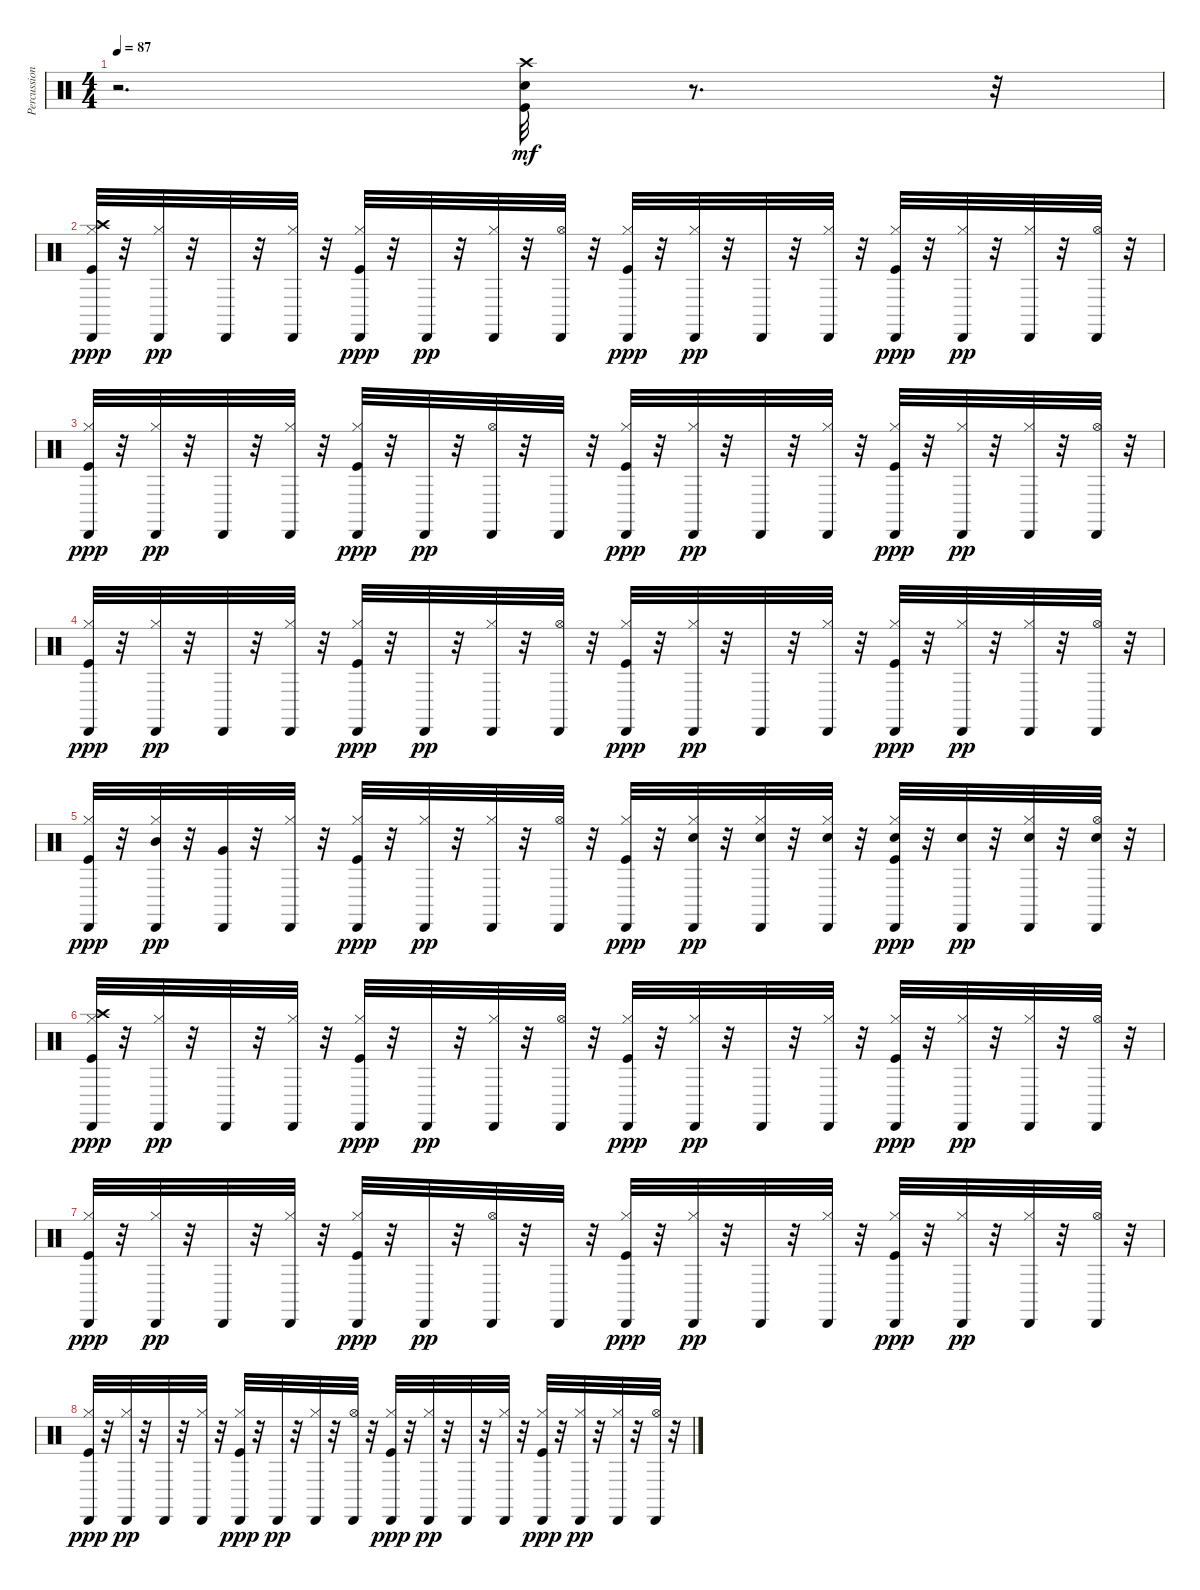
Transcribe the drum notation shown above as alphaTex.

\track ("Percussion" "Percussion") {instrument percussion}
\staff {score}
\articulation defaults
\ts (4 4)
\tempo 87
\clef neutral
\ks c
r.2{d dy pp} ("Kick (hit)" "Snare (hit) 2" "Crash high (hit)").32{dy mf} r.8{d} r.32 |
("Kick (hit)" "Hi-Hat (closed)" "Crash high (hit)" "Cabasa (hit)").32{dy ppp} r.32 ("Hi-Hat (closed)" "Cabasa (hit)").32{dy pp} r.32 "Cabasa (hit)".32 r.32 ("Hi-Hat (closed)" "Cabasa (hit)").32 r.32 ("Kick (hit)" "Hi-Hat (closed)" "Cabasa (hit)").32{dy ppp} r.32 "Cabasa (hit)".32{dy pp} r.32 ("Hi-Hat (closed)" "Cabasa (hit)").32 r.32 ("Hi-Hat (open)" "Cabasa (hit)").32 r.32 ("Kick (hit)" "Hi-Hat (closed)" "Cabasa (hit)").32{dy ppp} r.32 ("Hi-Hat (closed)" "Cabasa (hit)").32{dy pp} r.32 "Cabasa (hit)".32 r.32 ("Hi-Hat (closed)" "Cabasa (hit)").32 r.32 ("Kick (hit)" "Hi-Hat (closed)" "Cabasa (hit)").32{dy ppp} r.32 ("Hi-Hat (closed)" "Cabasa (hit)").32{dy pp} r.32 ("Hi-Hat (closed)" "Cabasa (hit)").32 r.32 ("Hi-Hat (open)" "Cabasa (hit)").32 r.32 |
("Kick (hit)" "Hi-Hat (closed)" "Cabasa (hit)").32{dy ppp} r.32 ("Hi-Hat (closed)" "Cabasa (hit)").32{dy pp} r.32 "Cabasa (hit)".32 r.32 ("Hi-Hat (closed)" "Cabasa (hit)").32 r.32 ("Kick (hit)" "Hi-Hat (closed)" "Cabasa (hit)").32{dy ppp} r.32 "Cabasa (hit)".32{dy pp} r.32 ("Hi-Hat (open)" "Cabasa (hit)").32 r.32 "Cabasa (hit)".32 r.32 ("Kick (hit)" "Hi-Hat (closed)" "Cabasa (hit)").32{dy ppp} r.32 ("Hi-Hat (closed)" "Cabasa (hit)").32{dy pp} r.32 "Cabasa (hit)".32 r.32 ("Hi-Hat (closed)" "Cabasa (hit)").32 r.32 ("Kick (hit)" "Hi-Hat (closed)" "Cabasa (hit)").32{dy ppp} r.32 ("Hi-Hat (closed)" "Cabasa (hit)").32{dy pp} r.32 ("Hi-Hat (closed)" "Cabasa (hit)").32 r.32 ("Hi-Hat (open)" "Cabasa (hit)").32 r.32 |
("Kick (hit)" "Hi-Hat (closed)" "Cabasa (hit)").32{dy ppp} r.32 ("Hi-Hat (closed)" "Cabasa (hit)").32{dy pp} r.32 "Cabasa (hit)".32 r.32 ("Hi-Hat (closed)" "Cabasa (hit)").32 r.32 ("Kick (hit)" "Hi-Hat (closed)" "Cabasa (hit)").32{dy ppp} r.32 "Cabasa (hit)".32{dy pp} r.32 ("Hi-Hat (closed)" "Cabasa (hit)").32 r.32 ("Hi-Hat (open)" "Cabasa (hit)").32 r.32 ("Kick (hit)" "Hi-Hat (closed)" "Cabasa (hit)").32{dy ppp} r.32 ("Hi-Hat (closed)" "Cabasa (hit)").32{dy pp} r.32 "Cabasa (hit)".32 r.32 ("Hi-Hat (closed)" "Cabasa (hit)").32 r.32 ("Kick (hit)" "Hi-Hat (closed)" "Cabasa (hit)").32{dy ppp} r.32 ("Hi-Hat (closed)" "Cabasa (hit)").32{dy pp} r.32 ("Hi-Hat (closed)" "Cabasa (hit)").32 r.32 ("Hi-Hat (open)" "Cabasa (hit)").32 r.32 |
("Kick (hit)" "Hi-Hat (closed)" "Cabasa (hit)").32{dy ppp} r.32 ("Hi-Hat (closed)" "Mid Tom (hit)" "Cabasa (hit)").32{dy pp} r.32 ("Very Low Tom (hit)" "Cabasa (hit)").32 r.32 ("Hi-Hat (closed)" "Cabasa (hit)").32 r.32 ("Kick (hit)" "Hi-Hat (closed)" "Cabasa (hit)").32{dy ppp} r.32 ("Hi-Hat (closed)" "Cabasa (hit)").32{dy pp} r.32 ("Hi-Hat (closed)" "Cabasa (hit)").32 r.32 ("Hi-Hat (open)" "Cabasa (hit)").32 r.32 ("Kick (hit)" "Hi-Hat (closed)" "Cabasa (hit)").32{dy ppp} r.32 ("Snare (hit) 2" "Hi-Hat (closed)" "Cabasa (hit)").32{dy pp} r.32 ("Snare (hit) 2" "Hi-Hat (closed)" "Cabasa (hit)").32 r.32 ("Snare (hit) 2" "Hi-Hat (closed)" "Cabasa (hit)").32 r.32 ("Kick (hit)" "Snare (hit) 2" "Hi-Hat (closed)" "Cabasa (hit)").32{dy ppp} r.32 ("Snare (hit) 2" "Cabasa (hit)").32{dy pp} r.32 ("Snare (hit) 2" "Hi-Hat (closed)" "Cabasa (hit)").32 r.32 ("Snare (hit) 2" "Hi-Hat (open)" "Cabasa (hit)").32 r.32 |
("Kick (hit)" "Hi-Hat (closed)" "Crash high (hit)" "Cabasa (hit)").32{dy ppp} r.32 ("Hi-Hat (closed)" "Cabasa (hit)").32{dy pp} r.32 "Cabasa (hit)".32 r.32 ("Hi-Hat (closed)" "Cabasa (hit)").32 r.32 ("Kick (hit)" "Hi-Hat (closed)" "Cabasa (hit)").32{dy ppp} r.32 "Cabasa (hit)".32{dy pp} r.32 ("Hi-Hat (closed)" "Cabasa (hit)").32 r.32 ("Hi-Hat (open)" "Cabasa (hit)").32 r.32 ("Kick (hit)" "Hi-Hat (closed)" "Cabasa (hit)").32{dy ppp} r.32 ("Hi-Hat (closed)" "Cabasa (hit)").32{dy pp} r.32 "Cabasa (hit)".32 r.32 ("Hi-Hat (closed)" "Cabasa (hit)").32 r.32 ("Kick (hit)" "Hi-Hat (closed)" "Cabasa (hit)").32{dy ppp} r.32 ("Hi-Hat (closed)" "Cabasa (hit)").32{dy pp} r.32 ("Hi-Hat (closed)" "Cabasa (hit)").32 r.32 ("Hi-Hat (open)" "Cabasa (hit)").32 r.32 |
("Kick (hit)" "Hi-Hat (closed)" "Cabasa (hit)").32{dy ppp} r.32 ("Hi-Hat (closed)" "Cabasa (hit)").32{dy pp} r.32 "Cabasa (hit)".32 r.32 ("Hi-Hat (closed)" "Cabasa (hit)").32 r.32 ("Kick (hit)" "Hi-Hat (closed)" "Cabasa (hit)").32{dy ppp} r.32 "Cabasa (hit)".32{dy pp} r.32 ("Hi-Hat (open)" "Cabasa (hit)").32 r.32 "Cabasa (hit)".32 r.32 ("Kick (hit)" "Hi-Hat (closed)" "Cabasa (hit)").32{dy ppp} r.32 ("Hi-Hat (closed)" "Cabasa (hit)").32{dy pp} r.32 "Cabasa (hit)".32 r.32 ("Hi-Hat (closed)" "Cabasa (hit)").32 r.32 ("Kick (hit)" "Hi-Hat (closed)" "Cabasa (hit)").32{dy ppp} r.32 ("Hi-Hat (closed)" "Cabasa (hit)").32{dy pp} r.32 ("Hi-Hat (closed)" "Cabasa (hit)").32 r.32 ("Hi-Hat (open)" "Cabasa (hit)").32 r.32 |
("Kick (hit)" "Hi-Hat (closed)" "Cabasa (hit)").32{dy ppp} r.32 ("Hi-Hat (closed)" "Cabasa (hit)").32{dy pp} r.32 "Cabasa (hit)".32 r.32 ("Hi-Hat (closed)" "Cabasa (hit)").32 r.32 ("Kick (hit)" "Hi-Hat (closed)" "Cabasa (hit)").32{dy ppp} r.32 "Cabasa (hit)".32{dy pp} r.32 ("Hi-Hat (closed)" "Cabasa (hit)").32 r.32 ("Hi-Hat (open)" "Cabasa (hit)").32 r.32 ("Kick (hit)" "Hi-Hat (closed)" "Cabasa (hit)").32{dy ppp} r.32 ("Hi-Hat (closed)" "Cabasa (hit)").32{dy pp} r.32 "Cabasa (hit)".32 r.32 ("Hi-Hat (closed)" "Cabasa (hit)").32 r.32 ("Kick (hit)" "Hi-Hat (closed)" "Cabasa (hit)").32{dy ppp} r.32 ("Hi-Hat (closed)" "Cabasa (hit)").32{dy pp} r.32 ("Hi-Hat (closed)" "Cabasa (hit)").32 r.32 ("Hi-Hat (open)" "Cabasa (hit)").32 r.32
